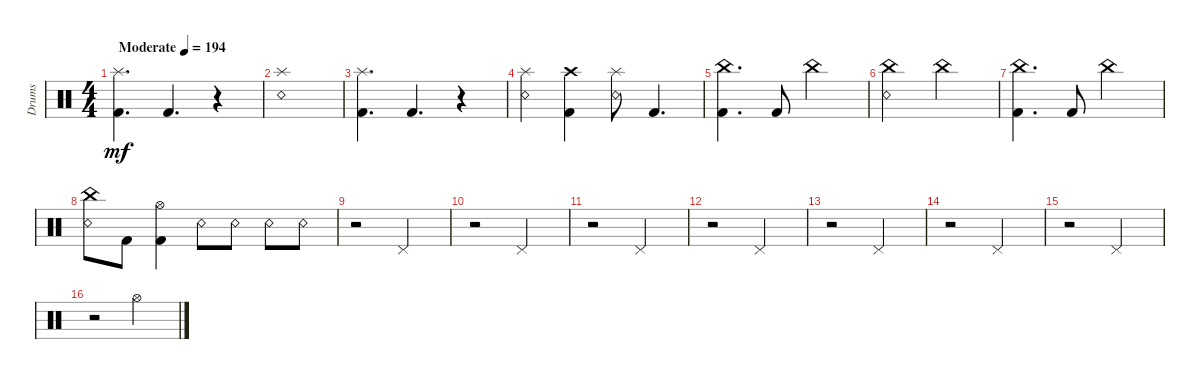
\track ("Drums" "Drums") {instrument percussion}
\staff {score}
\articulation defaults
\ts (4 4)
\tempo (194 "Moderate")
\clef neutral
\ks c
("Splash (hit)" "Kick (hit) 2").4{d dy mf} "Kick (hit) 2".4{d} r.4 |
("Splash (hit)" "Snare (rim shot)").1 |
("Splash (hit)" "Kick (hit) 2").4{d} "Kick (hit) 2".4{d} r.4 |
("Splash (hit)" "Snare (rim shot)").4 ("Crash high (hit)" "Kick (hit) 2").4 ("Splash (hit)" "Snare (rim shot)").8 "Kick (hit) 2".4{d} |
("China (hit)" "Kick (hit) 2").4{d} "Kick (hit) 2".8 "China (hit)".2 |
("China (hit)" "Snare (rim shot)").2 "China (hit)".2 |
("China (hit)" "Kick (hit) 2").4{d} "Kick (hit) 2".8 "China (hit)".2 |
("China (hit)" "Snare (rim shot)").8 "Kick (hit) 2".8 ("Hi-Hat (open)" "Kick (hit) 2").4 "Snare (rim shot)".8 "Snare (rim shot)".8 "Snare (rim shot)".8 "Snare (rim shot)".8 |
r.2 "Pedal Hi-Hat (hit)".2 |
r.2 "Pedal Hi-Hat (hit)".2 |
r.2 "Pedal Hi-Hat (hit)".2 |
r.2 "Pedal Hi-Hat (hit)".2 |
r.2 "Pedal Hi-Hat (hit)".2 |
r.2 "Pedal Hi-Hat (hit)".2 |
r.2 "Pedal Hi-Hat (hit)".2 |
r.2 "Hi-Hat (open)".2
